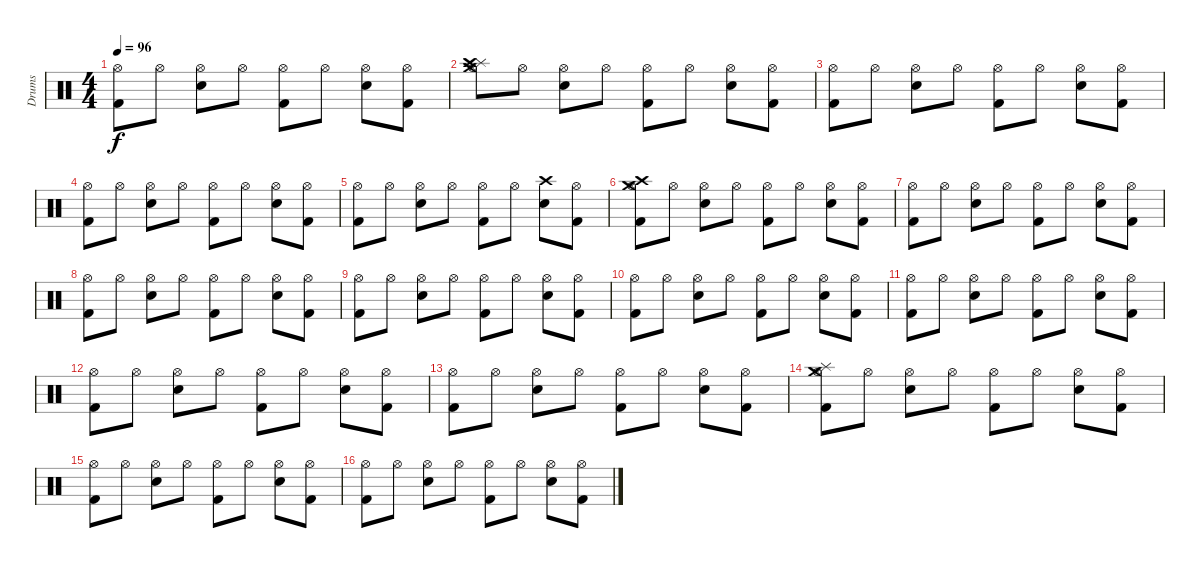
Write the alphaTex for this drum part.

\track ("Drums" "Drums") {instrument percussion}
\staff {score}
\articulation defaults
\ts (4 4)
\tempo 96
\clef neutral
\ks c
("Hi-Hat (open)" "Kick (hit) 2").8{dy f} "Hi-Hat (open)".8 ("Hi-Hat (open)" "Snare (hit) 2").8 "Hi-Hat (open)".8 ("Hi-Hat (open)" "Kick (hit) 2").8 "Hi-Hat (open)".8 ("Snare (hit) 2" "Hi-Hat (open)").8 ("Kick (hit) 2" "Hi-Hat (open)").8 |
("Crash medium (hit)" "Splash (hit)" "Hi-Hat (open)" "Crash high (hit)").8 "Hi-Hat (open)".8 ("Hi-Hat (open)" "Snare (hit) 2").8 "Hi-Hat (open)".8 ("Hi-Hat (open)" "Kick (hit) 2").8 "Hi-Hat (open)".8 ("Snare (hit) 2" "Hi-Hat (open)").8 ("Kick (hit) 2" "Hi-Hat (open)").8 |
("Hi-Hat (open)" "Kick (hit) 2").8 "Hi-Hat (open)".8 ("Hi-Hat (open)" "Snare (hit) 2").8 "Hi-Hat (open)".8 ("Hi-Hat (open)" "Kick (hit) 2").8 "Hi-Hat (open)".8 ("Snare (hit) 2" "Hi-Hat (open)").8 ("Kick (hit) 2" "Hi-Hat (open)").8 |
("Hi-Hat (open)" "Kick (hit) 2").8 "Hi-Hat (open)".8 ("Hi-Hat (open)" "Snare (hit) 2").8 "Hi-Hat (open)".8 ("Hi-Hat (open)" "Kick (hit) 2").8 "Hi-Hat (open)".8 ("Snare (hit) 2" "Hi-Hat (open)").8 ("Kick (hit) 2" "Hi-Hat (open)").8 |
("Hi-Hat (open)" "Kick (hit) 2").8 "Hi-Hat (open)".8 ("Hi-Hat (open)" "Snare (hit) 2").8 "Hi-Hat (open)".8 ("Hi-Hat (open)" "Kick (hit) 2").8 "Hi-Hat (open)".8 ("Crash high (hit)" "Snare (hit) 2").8 ("Kick (hit) 2" "Hi-Hat (open)").8 |
("Crash medium (hit)" "Crash high (hit)" "Hi-Hat (open)" "Kick (hit) 2").8 "Hi-Hat (open)".8 ("Hi-Hat (open)" "Snare (hit) 2").8 "Hi-Hat (open)".8 ("Hi-Hat (open)" "Kick (hit) 2").8 "Hi-Hat (open)".8 ("Snare (hit) 2" "Hi-Hat (open)").8 ("Kick (hit) 2" "Hi-Hat (open)").8 |
("Hi-Hat (open)" "Kick (hit) 2").8 "Hi-Hat (open)".8 ("Hi-Hat (open)" "Snare (hit) 2").8 "Hi-Hat (open)".8 ("Hi-Hat (open)" "Kick (hit) 2").8 "Hi-Hat (open)".8 ("Snare (hit) 2" "Hi-Hat (open)").8 ("Kick (hit) 2" "Hi-Hat (open)").8 |
("Hi-Hat (open)" "Kick (hit) 2").8 "Hi-Hat (open)".8 ("Hi-Hat (open)" "Snare (hit) 2").8 "Hi-Hat (open)".8 ("Hi-Hat (open)" "Kick (hit) 2").8 "Hi-Hat (open)".8 ("Snare (hit) 2" "Hi-Hat (open)").8 ("Kick (hit) 2" "Hi-Hat (open)").8 |
("Hi-Hat (open)" "Kick (hit) 2").8 "Hi-Hat (open)".8 ("Hi-Hat (open)" "Snare (hit) 2").8 "Hi-Hat (open)".8 ("Hi-Hat (open)" "Kick (hit) 2").8 "Hi-Hat (open)".8 ("Snare (hit) 2" "Hi-Hat (open)").8 ("Kick (hit) 2" "Hi-Hat (open)").8 |
("Hi-Hat (open)" "Kick (hit) 2").8 "Hi-Hat (open)".8 ("Hi-Hat (open)" "Snare (hit) 2").8 "Hi-Hat (open)".8 ("Hi-Hat (open)" "Kick (hit) 2").8 "Hi-Hat (open)".8 ("Snare (hit) 2" "Hi-Hat (open)").8 ("Kick (hit) 2" "Hi-Hat (open)").8 |
("Hi-Hat (open)" "Kick (hit) 2").8 "Hi-Hat (open)".8 ("Hi-Hat (open)" "Snare (hit) 2").8 "Hi-Hat (open)".8 ("Hi-Hat (open)" "Kick (hit) 2").8 "Hi-Hat (open)".8 ("Snare (hit) 2" "Hi-Hat (open)").8 ("Kick (hit) 2" "Hi-Hat (open)").8 |
("Hi-Hat (open)" "Kick (hit) 2").8 "Hi-Hat (open)".8 ("Hi-Hat (open)" "Snare (hit) 2").8 "Hi-Hat (open)".8 ("Hi-Hat (open)" "Kick (hit) 2").8 "Hi-Hat (open)".8 ("Snare (hit) 2" "Hi-Hat (open)").8 ("Kick (hit) 2" "Hi-Hat (open)").8 |
("Hi-Hat (open)" "Kick (hit) 2").8 "Hi-Hat (open)".8 ("Hi-Hat (open)" "Snare (hit) 2").8 "Hi-Hat (open)".8 ("Hi-Hat (open)" "Kick (hit) 2").8 "Hi-Hat (open)".8 ("Snare (hit) 2" "Hi-Hat (open)").8 ("Kick (hit) 2" "Hi-Hat (open)").8 |
("Crash medium (hit)" "Splash (hit)" "Hi-Hat (open)" "Kick (hit) 2").8 "Hi-Hat (open)".8 ("Hi-Hat (open)" "Snare (hit) 2").8 "Hi-Hat (open)".8 ("Hi-Hat (open)" "Kick (hit) 2").8 "Hi-Hat (open)".8 ("Snare (hit) 2" "Hi-Hat (open)").8 ("Kick (hit) 2" "Hi-Hat (open)").8 |
("Hi-Hat (open)" "Kick (hit) 2").8 "Hi-Hat (open)".8 ("Hi-Hat (open)" "Snare (hit) 2").8 "Hi-Hat (open)".8 ("Hi-Hat (open)" "Kick (hit) 2").8 "Hi-Hat (open)".8 ("Snare (hit) 2" "Hi-Hat (open)").8 ("Kick (hit) 2" "Hi-Hat (open)").8 |
("Hi-Hat (open)" "Kick (hit) 2").8 "Hi-Hat (open)".8 ("Hi-Hat (open)" "Snare (hit) 2").8 "Hi-Hat (open)".8 ("Hi-Hat (open)" "Kick (hit) 2").8 "Hi-Hat (open)".8 ("Snare (hit) 2" "Hi-Hat (open)").8 ("Kick (hit) 2" "Hi-Hat (open)").8
